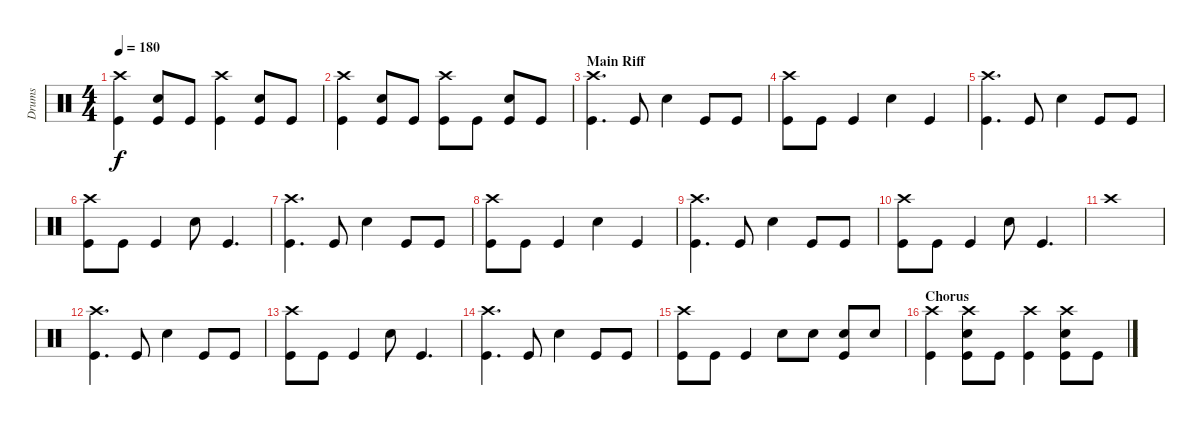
\track ("Drums" "Drums") {instrument percussion}
\staff {score}
\articulation defaults
\ts (4 4)
\tempo 180
\clef neutral
\ks c
("Crash high (hit)" "Kick (hit)").4{dy f} ("Snare (hit) 2" "Kick (hit)").8 "Kick (hit)".8 ("Crash high (hit)" "Kick (hit)").4 ("Snare (hit) 2" "Kick (hit)").8 "Kick (hit)".8 |
("Crash high (hit)" "Kick (hit)").4 ("Snare (hit) 2" "Kick (hit)").8 "Kick (hit)".8 ("Crash high (hit)" "Kick (hit)").8 "Kick (hit)".8 ("Snare (hit) 2" "Kick (hit)").8 "Kick (hit)".8 |
\section ("" "Main Riff")
("Crash high (hit)" "Kick (hit)").4{d} "Kick (hit)".8 "Snare (hit) 2".4 "Kick (hit)".8 "Kick (hit)".8 |
("Crash high (hit)" "Kick (hit)").8 "Kick (hit)".8 "Kick (hit)".4 "Snare (hit) 2".4 "Kick (hit)".4 |
("Crash high (hit)" "Kick (hit)").4{d} "Kick (hit)".8 "Snare (hit) 2".4 "Kick (hit)".8 "Kick (hit)".8 |
("Crash high (hit)" "Kick (hit)").8 "Kick (hit)".8 "Kick (hit)".4 "Snare (hit) 2".8 "Kick (hit)".4{d} |
("Crash high (hit)" "Kick (hit)").4{d} "Kick (hit)".8 "Snare (hit) 2".4 "Kick (hit)".8 "Kick (hit)".8 |
("Crash high (hit)" "Kick (hit)").8 "Kick (hit)".8 "Kick (hit)".4 "Snare (hit) 2".4 "Kick (hit)".4 |
("Crash high (hit)" "Kick (hit)").4{d} "Kick (hit)".8 "Snare (hit) 2".4 "Kick (hit)".8 "Kick (hit)".8 |
("Crash high (hit)" "Kick (hit)").8 "Kick (hit)".8 "Kick (hit)".4 "Snare (hit) 2".8 "Kick (hit)".4{d} |
"Crash high (hit)".1 |
("Crash high (hit)" "Kick (hit)").4{d} "Kick (hit)".8 "Snare (hit) 2".4 "Kick (hit)".8 "Kick (hit)".8 |
("Crash high (hit)" "Kick (hit)").8 "Kick (hit)".8 "Kick (hit)".4 "Snare (hit) 2".8 "Kick (hit)".4{d} |
("Crash high (hit)" "Kick (hit)").4{d} "Kick (hit)".8 "Snare (hit) 2".4 "Kick (hit)".8 "Kick (hit)".8 |
("Crash high (hit)" "Kick (hit)").8 "Kick (hit)".8 "Kick (hit)".4 "Snare (hit) 2".8 "Snare (hit) 2".8 ("Snare (hit) 2" "Kick (hit)").8 "Snare (hit) 2".8 |
\section ("" "Chorus")
("Crash high (hit)" "Kick (hit)").4 ("Crash high (hit)" "Snare (hit) 2" "Kick (hit)").8 "Kick (hit)".8 ("Crash high (hit)" "Kick (hit)").4 ("Crash high (hit)" "Snare (hit) 2" "Kick (hit)").8 "Kick (hit)".8
